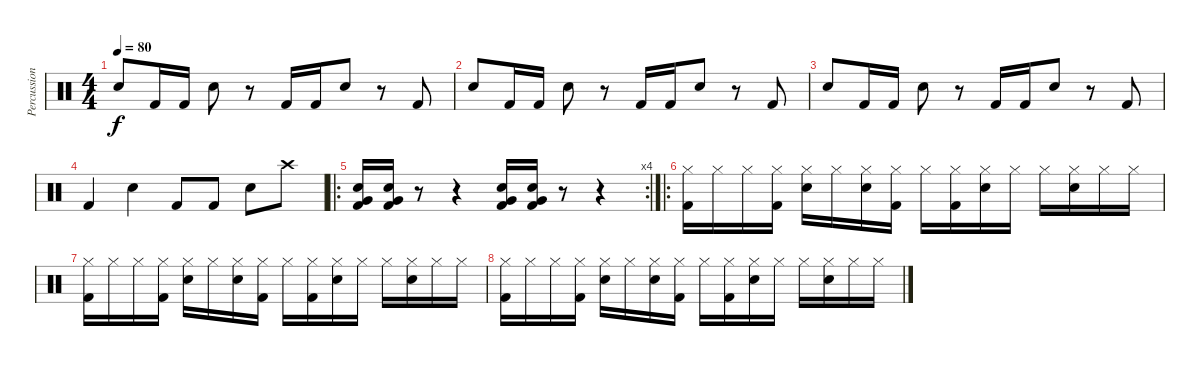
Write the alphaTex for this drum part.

\track ("Percussion" "Percussion") {instrument percussion}
\staff {score}
\articulation defaults
\ts (4 4)
\tempo 80
\clef neutral
\ks c "Snare (hit) 2".8{dy f} "Kick (hit) 2".16 "Kick (hit) 2".16 "Snare (hit) 2".8
r.8 "Kick (hit) 2".16 "Kick (hit) 2".16 "Snare (hit) 2".8 r.8 "Kick (hit) 2".8 |
"Snare (hit) 2".8 "Kick (hit) 2".16 "Kick (hit) 2".16 "Snare (hit) 2".8 r.8 "Kick (hit) 2".16 "Kick (hit) 2".16 "Snare (hit) 2".8 r.8 "Kick (hit) 2".8 |
"Snare (hit) 2".8 "Kick (hit) 2".16 "Kick (hit) 2".16 "Snare (hit) 2".8 r.8 "Kick (hit) 2".16 "Kick (hit) 2".16 "Snare (hit) 2".8 r.8 "Kick (hit) 2".8 |
"Kick (hit) 2".4 "Snare (hit) 2".4 "Kick (hit) 2".8 "Kick (hit) 2".8 "Snare (hit) 2".8 "Crash high (hit)".8 |
\ro
\rc 4
("Very Low Tom (hit)" "Snare (hit) 2" "Kick (hit) 2").16 ("Very Low Tom (hit)" "Snare (hit) 2" "Kick (hit) 2").16 r.8 r.4 ("Very Low Tom (hit)" "Snare (hit) 2" "Kick (hit) 2").16 ("Very Low Tom (hit)" "Snare (hit) 2" "Kick (hit) 2").16 r.8 r.4 |
\ro
("Hi-Hat (closed)" "Kick (hit) 2").16 "Hi-Hat (closed)".16 "Hi-Hat (closed)".16 ("Hi-Hat (closed)" "Kick (hit) 2").16 ("Hi-Hat (closed)" "Snare (hit) 2").16 "Hi-Hat (closed)".16 ("Hi-Hat (closed)" "Snare (hit) 2").16 ("Hi-Hat (closed)" "Kick (hit) 2").16 "Hi-Hat (closed)".16 ("Hi-Hat (closed)" "Kick (hit) 2").16 ("Hi-Hat (closed)" "Snare (hit) 2").16 "Hi-Hat (closed)".16 "Hi-Hat (closed)".16 ("Hi-Hat (closed)" "Snare (hit) 2").16 "Hi-Hat (closed)".16 "Hi-Hat (closed)".16 |
("Hi-Hat (closed)" "Kick (hit) 2").16 "Hi-Hat (closed)".16 "Hi-Hat (closed)".16 ("Hi-Hat (closed)" "Kick (hit) 2").16 ("Hi-Hat (closed)" "Snare (hit) 2").16 "Hi-Hat (closed)".16 ("Hi-Hat (closed)" "Snare (hit) 2").16 ("Hi-Hat (closed)" "Kick (hit) 2").16 "Hi-Hat (closed)".16 ("Hi-Hat (closed)" "Kick (hit) 2").16 ("Hi-Hat (closed)" "Snare (hit) 2").16 "Hi-Hat (closed)".16 "Hi-Hat (closed)".16 ("Hi-Hat (closed)" "Snare (hit) 2").16 "Hi-Hat (closed)".16 "Hi-Hat (closed)".16 |
("Hi-Hat (closed)" "Kick (hit) 2").16 "Hi-Hat (closed)".16 "Hi-Hat (closed)".16 ("Hi-Hat (closed)" "Kick (hit) 2").16 ("Hi-Hat (closed)" "Snare (hit) 2").16 "Hi-Hat (closed)".16 ("Hi-Hat (closed)" "Snare (hit) 2").16 ("Hi-Hat (closed)" "Kick (hit) 2").16 "Hi-Hat (closed)".16 ("Hi-Hat (closed)" "Kick (hit) 2").16 ("Hi-Hat (closed)" "Snare (hit) 2").16 "Hi-Hat (closed)".16 "Hi-Hat (closed)".16 ("Hi-Hat (closed)" "Snare (hit) 2").16 "Hi-Hat (closed)".16 "Hi-Hat (closed)".16
